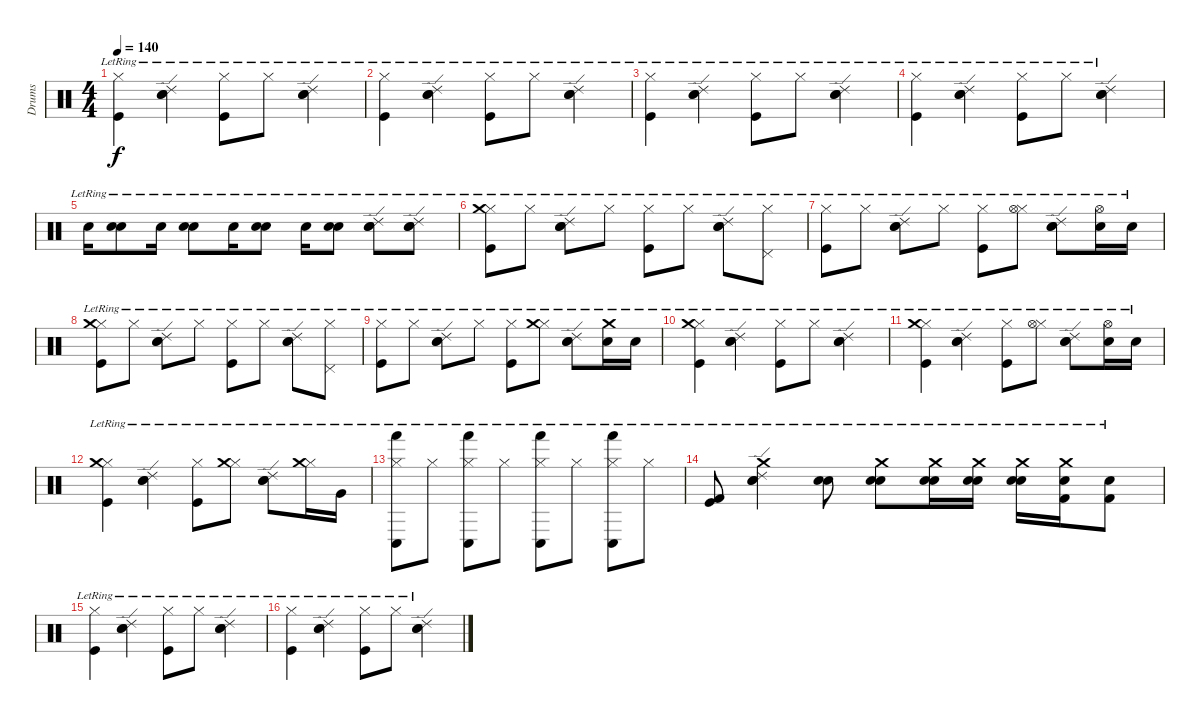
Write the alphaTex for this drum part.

\track ("Drums" "Drums") {instrument percussion}
\staff {score}
\articulation defaults
\ts (4 4)
\tempo 140
\clef neutral
\ks c
("Hi-Hat (closed)"{lr} "Kick (hit)"{lr}).4{dy f} ("Electric Snare (hit)"{lr} "Ride (edge) 2"{lr} "Snare (hit) 2"{lr}).4 ("Hi-Hat (closed)"{lr} "Kick (hit)"{lr}).8 "Hi-Hat (closed)"{lr}.8 ("Electric Snare (hit)"{lr} "Ride (edge) 2"{lr} "Snare (hit) 2"{lr}).4 |
("Hi-Hat (closed)"{lr} "Kick (hit)"{lr}).4 ("Electric Snare (hit)"{lr} "Ride (edge) 2"{lr} "Snare (hit) 2"{lr}).4 ("Hi-Hat (closed)"{lr} "Kick (hit)"{lr}).8 "Hi-Hat (closed)"{lr}.8 ("Electric Snare (hit)"{lr} "Ride (edge) 2"{lr} "Snare (hit) 2"{lr}).4 |
("Hi-Hat (closed)"{lr} "Kick (hit)"{lr}).4 ("Electric Snare (hit)"{lr} "Ride (edge) 2"{lr} "Snare (hit) 2"{lr}).4 ("Hi-Hat (closed)"{lr} "Kick (hit)"{lr}).8 "Hi-Hat (closed)"{lr}.8 ("Electric Snare (hit)"{lr} "Ride (edge) 2"{lr} "Snare (hit) 2"{lr}).4 |
("Hi-Hat (closed)"{lr} "Kick (hit)"{lr}).4 ("Electric Snare (hit)"{lr} "Ride (edge) 2"{lr} "Snare (hit) 2"{lr}).4 ("Hi-Hat (closed)"{lr} "Kick (hit)"{lr}).8 "Hi-Hat (closed)"{lr}.8 ("Electric Snare (hit)"{lr} "Ride (edge) 2"{lr} "Snare (hit) 2"{lr}).4 |
"Snare (hit) 2"{lr}.16 ("Snare (hit) 2"{lr} "Electric Snare (hit)"{lr}).8 "Snare (hit) 2"{lr}.16 ("Snare (hit) 2"{lr} "Electric Snare (hit)"{lr}).8 "Snare (hit) 2"{lr}.16 ("Snare (hit) 2"{lr} "Electric Snare (hit)"{lr}).8 "Snare (hit) 2"{lr}.16 ("Snare (hit) 2"{lr} "Electric Snare (hit)"{lr}).8 ("Snare (hit) 2"{lr} "Electric Snare (hit)"{lr} "Ride (edge) 2"{lr}).8 ("Snare (hit) 2"{lr} "Electric Snare (hit)"{lr} "Ride (edge) 2"{lr}).8 |
("Hi-Hat (closed)"{lr} "Crash medium (hit)"{lr} "Kick (hit)"{lr}).8 "Hi-Hat (closed)"{lr}.8 ("Electric Snare (hit)"{lr} "Ride (edge) 2"{lr} "Snare (hit) 2"{lr}).8 "Hi-Hat (closed)"{lr}.8 ("Hi-Hat (closed)"{lr} "Kick (hit)"{lr}).8 "Hi-Hat (closed)"{lr}.8 ("Electric Snare (hit)"{lr} "Ride (edge) 2"{lr} "Snare (hit) 2"{lr}).8 ("Hi-Hat (closed)"{lr} "Pedal Hi-Hat (hit)"{lr}).8 |
("Hi-Hat (closed)"{lr} "Kick (hit)"{lr}).8 "Hi-Hat (closed)"{lr}.8 ("Electric Snare (hit)"{lr} "Ride (edge) 2"{lr} "Snare (hit) 2"{lr}).8 "Hi-Hat (closed)"{lr}.8 ("Hi-Hat (closed)"{lr} "Kick (hit)"{lr}).8 ("Hi-Hat (closed)"{lr} "Hi-Hat (open)"{lr}).8 ("Electric Snare (hit)"{lr} "Ride (edge) 2"{lr} "Snare (hit) 2"{lr}).8 ("Hi-Hat (open)"{lr} "Snare (hit) 2"{lr}).16 "Snare (hit) 2"{lr}.16 |
("Hi-Hat (closed)"{lr} "Crash medium (hit)"{lr} "Kick (hit)"{lr}).8 "Hi-Hat (closed)"{lr}.8 ("Electric Snare (hit)"{lr} "Ride (edge) 2"{lr} "Snare (hit) 2"{lr}).8 "Hi-Hat (closed)"{lr}.8 ("Hi-Hat (closed)"{lr} "Kick (hit)"{lr}).8 "Hi-Hat (closed)"{lr}.8 ("Electric Snare (hit)"{lr} "Ride (edge) 2"{lr} "Snare (hit) 2"{lr}).8 ("Hi-Hat (closed)"{lr} "Pedal Hi-Hat (hit)"{lr}).8 |
("Hi-Hat (closed)"{lr} "Kick (hit)"{lr}).8 "Hi-Hat (closed)"{lr}.8 ("Electric Snare (hit)"{lr} "Ride (edge) 2"{lr} "Snare (hit) 2"{lr}).8 "Hi-Hat (closed)"{lr}.8 ("Hi-Hat (closed)"{lr} "Kick (hit)"{lr}).8 ("Hi-Hat (closed)"{lr} "Crash medium (hit)"{lr}).8 ("Electric Snare (hit)"{lr} "Ride (edge) 2"{lr} "Snare (hit) 2"{lr}).8 ("Crash medium (hit)"{lr} "Snare (hit) 2"{lr}).16 "Snare (hit) 2"{lr}.16 |
("Hi-Hat (closed)"{lr} "Crash medium (hit)"{lr} "Kick (hit)"{lr}).4 ("Electric Snare (hit)"{lr} "Ride (edge) 2"{lr} "Snare (hit) 2"{lr}).4 ("Hi-Hat (closed)"{lr} "Kick (hit)"{lr}).8 "Hi-Hat (closed)"{lr}.8 ("Electric Snare (hit)"{lr} "Ride (edge) 2"{lr} "Snare (hit) 2"{lr}).4 |
("Hi-Hat (closed)"{lr} "Crash medium (hit)"{lr} "Kick (hit)"{lr}).4 ("Electric Snare (hit)"{lr} "Ride (edge) 2"{lr} "Snare (hit) 2"{lr}).4 ("Hi-Hat (closed)"{lr} "Kick (hit)"{lr}).8 ("Hi-Hat (closed)"{lr} "Hi-Hat (open)"{lr}).8 ("Electric Snare (hit)"{lr} "Ride (edge) 2"{lr} "Snare (hit) 2"{lr}).8 ("Hi-Hat (open)"{lr} "Snare (hit) 2"{lr}).16 "Snare (hit) 2"{lr}.16 |
("Hi-Hat (closed)"{lr} "Crash medium (hit)"{lr} "Kick (hit)"{lr}).4 ("Electric Snare (hit)"{lr} "Ride (edge) 2"{lr} "Snare (hit) 2"{lr}).4 ("Hi-Hat (closed)"{lr} "Kick (hit)"{lr}).8 ("Hi-Hat (closed)"{lr} "Crash medium (hit)"{lr}).8 ("Electric Snare (hit)"{lr} "Ride (edge) 2"{lr} "Snare (hit) 2"{lr}).8 ("Hi-Hat (closed)"{lr} "Crash medium (hit)"{lr}).16 "Very Low Tom (hit)"{lr}.16 |
("Hi-Hat (closed)"{lr} "Conga low (hit)"{lr} "Hand (hit)"{lr}).8 "Hi-Hat (closed)"{lr}.8 ("Hi-Hat (closed)"{lr} "Conga low (hit)"{lr} "Hand (hit)"{lr}).8 "Hi-Hat (closed)"{lr}.8 ("Hi-Hat (closed)"{lr} "Conga low (hit)"{lr} "Hand (hit)"{lr}).8 "Hi-Hat (closed)"{lr}.8 ("Hi-Hat (closed)"{lr} "Conga low (hit)"{lr} "Hand (hit)"{lr}).8 "Hi-Hat (closed)"{lr}.8 |
("Kick (hit) 2"{lr} "Kick (hit)"{lr}).8 ("Snare (hit) 2"{lr} "Electric Snare (hit)"{lr} "Ride (edge) 2"{lr} "Crash medium (hit)"{lr}).4 ("Snare (hit) 2"{lr} "Electric Snare (hit)"{lr}).8 ("Snare (hit) 2"{lr} "Electric Snare (hit)"{lr} "Crash medium (hit)"{lr}).8 ("Snare (hit) 2"{lr} "Electric Snare (hit)"{lr} "Crash medium (hit)"{lr}).16 ("Snare (hit) 2"{lr} "Electric Snare (hit)"{lr} "Crash medium (hit)"{lr}).16 ("Snare (hit) 2"{lr} "Electric Snare (hit)"{lr} "Crash medium (hit)"{lr}).16 ("Kick (hit) 2"{lr} "Electric Snare (hit)"{lr} "Crash medium (hit)"{lr}).16 ("Kick (hit) 2"{lr} "Electric Snare (hit)"{lr}).8 |
("Hi-Hat (closed)"{lr} "Kick (hit)"{lr}).4 ("Electric Snare (hit)"{lr} "Ride (edge) 2"{lr} "Snare (hit) 2"{lr}).4 ("Hi-Hat (closed)"{lr} "Kick (hit)"{lr}).8 "Hi-Hat (closed)"{lr}.8 ("Electric Snare (hit)"{lr} "Ride (edge) 2"{lr} "Snare (hit) 2"{lr}).4 |
("Hi-Hat (closed)"{lr} "Kick (hit)"{lr}).4 ("Electric Snare (hit)"{lr} "Ride (edge) 2"{lr} "Snare (hit) 2"{lr}).4 ("Hi-Hat (closed)"{lr} "Kick (hit)"{lr}).8 "Hi-Hat (closed)"{lr}.8 ("Electric Snare (hit)"{lr} "Ride (edge) 2"{lr} "Snare (hit) 2"{lr}).4
